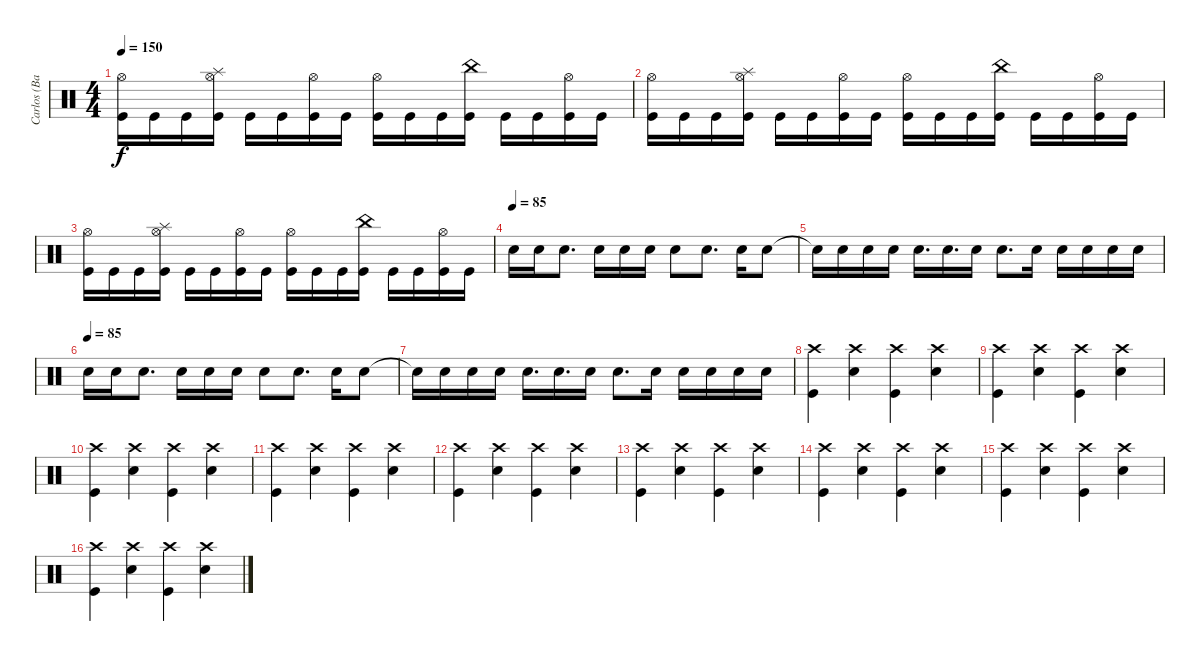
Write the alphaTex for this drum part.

\track ("Carlos (Batería)" "Carlos (Ba") {instrument percussion}
\staff {score}
\articulation defaults
\ts (4 4)
\tempo 150
\clef neutral
\ks c
("Kick (hit)" "Hi-Hat (open)").16{dy f} "Kick (hit)".16 "Kick (hit)".16 ("Kick (hit)" "Hi-Hat (open)" "Splash (hit)").16 "Kick (hit)".16 "Kick (hit)".16 ("Kick (hit)" "Hi-Hat (open)").16 "Kick (hit)".16 ("Kick (hit)" "Hi-Hat (open)").16 "Kick (hit)".16 "Kick (hit)".16 ("Kick (hit)" "China (hit)").16 "Kick (hit)".16 "Kick (hit)".16 ("Kick (hit)" "Hi-Hat (open)").16 "Kick (hit)".16 |
("Kick (hit)" "Hi-Hat (open)").16 "Kick (hit)".16 "Kick (hit)".16 ("Kick (hit)" "Hi-Hat (open)" "Splash (hit)").16 "Kick (hit)".16 "Kick (hit)".16 ("Kick (hit)" "Hi-Hat (open)").16 "Kick (hit)".16 ("Kick (hit)" "Hi-Hat (open)").16 "Kick (hit)".16 "Kick (hit)".16 ("Kick (hit)" "China (hit)").16 "Kick (hit)".16 "Kick (hit)".16 ("Kick (hit)" "Hi-Hat (open)").16 "Kick (hit)".16 |
("Kick (hit)" "Hi-Hat (open)").16 "Kick (hit)".16 "Kick (hit)".16 ("Kick (hit)" "Hi-Hat (open)" "Splash (hit)").16 "Kick (hit)".16 "Kick (hit)".16 ("Kick (hit)" "Hi-Hat (open)").16 "Kick (hit)".16 ("Kick (hit)" "Hi-Hat (open)").16 "Kick (hit)".16 "Kick (hit)".16 ("Kick (hit)" "China (hit)").16 "Kick (hit)".16 "Kick (hit)".16 ("Kick (hit)" "Hi-Hat (open)").16 "Kick (hit)".16 |
\tempo (85)
"Snare (hit) 2".16 "Snare (hit) 2".16 "Snare (hit) 2".8{d} "Snare (hit) 2".16 "Snare (hit) 2".16 "Snare (hit) 2".16 "Snare (hit) 2".8 "Snare (hit) 2".8{d} "Snare (hit) 2".16 "Snare (hit) 2".8 |
"Snare (hit) 2"{t}.16 "Snare (hit) 2".16 "Snare (hit) 2".16 "Snare (hit) 2".16 "Snare (hit) 2".16{d} "Snare (hit) 2".16{d} "Snare (hit) 2".16 "Snare (hit) 2".8{d} "Snare (hit) 2".16 "Snare (hit) 2".16 "Snare (hit) 2".16 "Snare (hit) 2".16 "Snare (hit) 2".16 |
\tempo (85)
"Snare (hit) 2".16 "Snare (hit) 2".16 "Snare (hit) 2".8{d} "Snare (hit) 2".16 "Snare (hit) 2".16 "Snare (hit) 2".16 "Snare (hit) 2".8 "Snare (hit) 2".8{d} "Snare (hit) 2".16 "Snare (hit) 2".8 |
"Snare (hit) 2"{t}.16 "Snare (hit) 2".16 "Snare (hit) 2".16 "Snare (hit) 2".16 "Snare (hit) 2".16{d} "Snare (hit) 2".16{d} "Snare (hit) 2".16 "Snare (hit) 2".8{d} "Snare (hit) 2".16 "Snare (hit) 2".16 "Snare (hit) 2".16 "Snare (hit) 2".16 "Snare (hit) 2".16 |
("Crash high (hit)" "Kick (hit)").4 ("Crash high (hit)" "Snare (hit) 2").4 ("Crash high (hit)" "Kick (hit)").4 ("Crash high (hit)" "Snare (hit) 2").4 |
("Crash high (hit)" "Kick (hit)").4 ("Crash high (hit)" "Snare (hit) 2").4 ("Crash high (hit)" "Kick (hit)").4 ("Crash high (hit)" "Snare (hit) 2").4 |
("Crash high (hit)" "Kick (hit)").4 ("Crash high (hit)" "Snare (hit) 2").4 ("Crash high (hit)" "Kick (hit)").4 ("Crash high (hit)" "Snare (hit) 2").4 |
("Crash high (hit)" "Kick (hit)").4 ("Crash high (hit)" "Snare (hit) 2").4 ("Crash high (hit)" "Kick (hit)").4 ("Crash high (hit)" "Snare (hit) 2").4 |
("Crash high (hit)" "Kick (hit)").4 ("Crash high (hit)" "Snare (hit) 2").4 ("Crash high (hit)" "Kick (hit)").4 ("Crash high (hit)" "Snare (hit) 2").4 |
("Crash high (hit)" "Kick (hit)").4 ("Crash high (hit)" "Snare (hit) 2").4 ("Crash high (hit)" "Kick (hit)").4 ("Crash high (hit)" "Snare (hit) 2").4 |
("Crash high (hit)" "Kick (hit)").4 ("Crash high (hit)" "Snare (hit) 2").4 ("Crash high (hit)" "Kick (hit)").4 ("Crash high (hit)" "Snare (hit) 2").4 |
("Crash high (hit)" "Kick (hit)").4 ("Crash high (hit)" "Snare (hit) 2").4 ("Crash high (hit)" "Kick (hit)").4 ("Crash high (hit)" "Snare (hit) 2").4 |
("Crash high (hit)" "Kick (hit)").4 ("Crash high (hit)" "Snare (hit) 2").4 ("Crash high (hit)" "Kick (hit)").4 ("Crash high (hit)" "Snare (hit) 2").4
